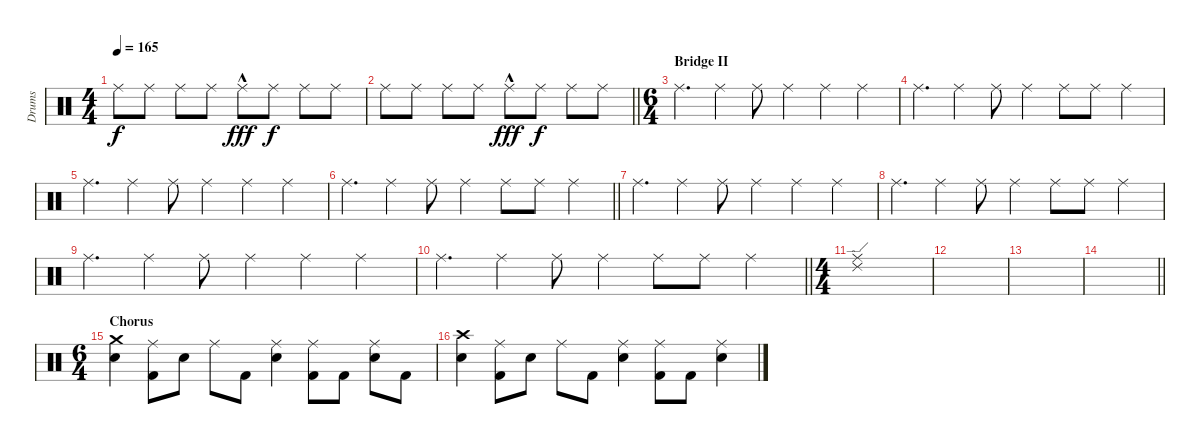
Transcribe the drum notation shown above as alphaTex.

\track ("Drums" "Drums") {instrument percussion}
\staff {score}
\articulation defaults
\ts (4 4)
\tempo 165
\clef neutral
\ks c "Ride (middle)".8{dy f} "Ride (middle)".8 "Ride (middle)".8 "Ride (middle)".8 "Ride (middle)"{hac}.8{dy fff} "Ride (middle)".8{dy f} "Ride (middle)".8 "Ride (middle)".8
|
\barLineRight lightlight "Ride (middle)".8 "Ride (middle)".8 "Ride (middle)".8 "Ride (middle)".8 "Ride (middle)"{hac}.8{dy fff} "Ride (middle)".8{dy f} "Ride (middle)".8 "Ride (middle)".8
|
\ts (6 4)
\section ("" "Bridge II")
"Ride (middle)".4{d volume 9} "Ride (middle)".4 "Ride (middle)".8 "Ride (middle)".4 "Ride (middle)".4 "Ride (middle)".4 |
"Ride (middle)".4{d} "Ride (middle)".4 "Ride (middle)".8 "Ride (middle)".4 "Ride (middle)".8 "Ride (middle)".8 "Ride (middle)".4 |
"Ride (middle)".4{d} "Ride (middle)".4 "Ride (middle)".8 "Ride (middle)".4 "Ride (middle)".4 "Ride (middle)".4 |
\barLineRight lightlight "Ride (middle)".4{d} "Ride (middle)".4 "Ride (middle)".8 "Ride (middle)".4 "Ride (middle)".8 "Ride (middle)".8 "Ride (middle)".4
|
\section ("" "")
"Ride (middle)".4{d} "Ride (middle)".4 "Ride (middle)".8 "Ride (middle)".4 "Ride (middle)".4 "Ride (middle)".4 |
"Ride (middle)".4{d} "Ride (middle)".4 "Ride (middle)".8 "Ride (middle)".4 "Ride (middle)".8 "Ride (middle)".8 "Ride (middle)".4 |
"Ride (middle)".4{d} "Ride (middle)".4 "Ride (middle)".8 "Ride (middle)".4 "Ride (middle)".4 "Ride (middle)".4 |
\barLineRight lightlight "Ride (middle)".4{d} "Ride (middle)".4 "Ride (middle)".8 "Ride (middle)".4 "Ride (middle)".8 "Ride (middle)".8 "Ride (middle)".4
|
\ts (4 4)
\section ("" "")
("Ride (middle)" "Ride (edge) 2").1 |
|
|
\barLineRight lightlight
|
\ts (6 4)
\section ("" "Chorus")
("Snare (hit) 2" "Crash medium (hit)").4{volume 16} ("Kick (hit) 2" "Ride (middle)").8 "Snare (hit) 2".8 "Ride (middle)".8 "Kick (hit) 2".8 ("Snare (hit) 2" "Ride (middle)").4 ("Kick (hit) 2" "Ride (middle)").8 "Kick (hit) 2".8 ("Snare (hit) 2" "Ride (middle)").8 "Kick (hit) 2".8 |
("Snare (hit) 2" "Crash high (hit)").4 ("Kick (hit) 2" "Ride (middle)").8 "Snare (hit) 2".8 "Ride (middle)".8 "Kick (hit) 2".8 ("Snare (hit) 2" "Ride (middle)").4 ("Kick (hit) 2" "Ride (middle)").8 "Kick (hit) 2".8 ("Snare (hit) 2" "Ride (middle)").4
